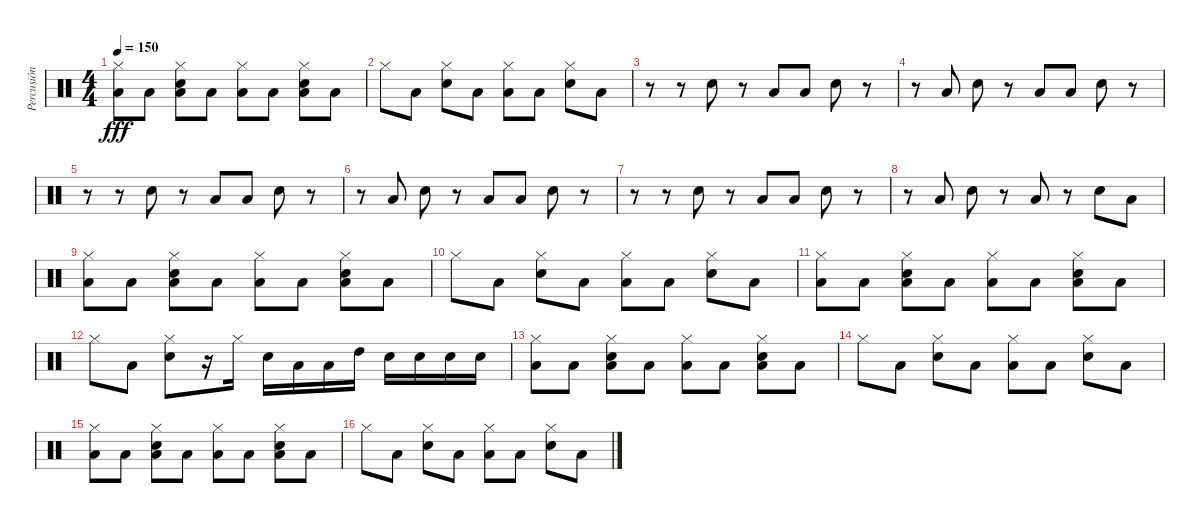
\track ("Percusión" "Percusión") {instrument percussion}
\staff {score}
\articulation defaults
\ts (4 4)
\tempo 150
\clef neutral
\ks c
("Hi-Hat (closed)" "Low Tom (hit)").8{dy fff} "Low Tom (hit)".8 ("Low Tom (hit)" "Hi-Hat (closed)" "Snare (hit) 2").8 "Low Tom (hit)".8 ("Hi-Hat (closed)" "Low Tom (hit)").8 "Low Tom (hit)".8 ("Low Tom (hit)" "Hi-Hat (closed)" "Snare (hit) 2").8 "Low Tom (hit)".8 |
"Hi-Hat (closed)".8 "Low Tom (hit)".8 ("Hi-Hat (closed)" "Snare (hit) 2").8 "Low Tom (hit)".8 ("Hi-Hat (closed)" "Low Tom (hit)").8 "Low Tom (hit)".8 ("Hi-Hat (closed)" "Snare (hit) 2").8 "Low Tom (hit)".8 |
r.8 r.8 "Snare (hit) 2".8 r.8 "Low Tom (hit)".8 "Low Tom (hit)".8 "Snare (hit) 2".8 r.8 |
r.8 "Low Tom (hit)".8 "Snare (hit) 2".8 r.8 "Low Tom (hit)".8 "Low Tom (hit)".8 "Snare (hit) 2".8 r.8 |
r.8 r.8 "Snare (hit) 2".8 r.8 "Low Tom (hit)".8 "Low Tom (hit)".8 "Snare (hit) 2".8 r.8 |
r.8 "Low Tom (hit)".8 "Snare (hit) 2".8 r.8 "Low Tom (hit)".8 "Low Tom (hit)".8 "Snare (hit) 2".8 r.8 |
r.8 r.8 "Snare (hit) 2".8 r.8 "Low Tom (hit)".8 "Low Tom (hit)".8 "Snare (hit) 2".8 r.8 |
r.8 "Low Tom (hit)".8 "Snare (hit) 2".8 r.8 "Low Tom (hit)".8 r.8 "Snare (hit) 2".8 "Low Tom (hit)".8 |
("Hi-Hat (closed)" "Low Tom (hit)").8 "Low Tom (hit)".8 ("Low Tom (hit)" "Hi-Hat (closed)" "Snare (hit) 2").8 "Low Tom (hit)".8 ("Hi-Hat (closed)" "Low Tom (hit)").8 "Low Tom (hit)".8 ("Low Tom (hit)" "Hi-Hat (closed)" "Snare (hit) 2").8 "Low Tom (hit)".8 |
"Hi-Hat (closed)".8 "Low Tom (hit)".8 ("Hi-Hat (closed)" "Snare (hit) 2").8 "Low Tom (hit)".8 ("Hi-Hat (closed)" "Low Tom (hit)").8 "Low Tom (hit)".8 ("Hi-Hat (closed)" "Snare (hit) 2").8 "Low Tom (hit)".8 |
("Hi-Hat (closed)" "Low Tom (hit)").8 "Low Tom (hit)".8 ("Low Tom (hit)" "Hi-Hat (closed)" "Snare (hit) 2").8 "Low Tom (hit)".8 ("Hi-Hat (closed)" "Low Tom (hit)").8 "Low Tom (hit)".8 ("Low Tom (hit)" "Hi-Hat (closed)" "Snare (hit) 2").8 "Low Tom (hit)".8 |
"Hi-Hat (closed)".8 "Low Tom (hit)".8 ("Hi-Hat (closed)" "Snare (hit) 2").8 r.16 "Hi-Hat (closed)".16 "Snare (hit) 2".16 "Low Tom (hit)".16 "Low Floor Tom (hit)".16 "High Tom (hit)".16 "Snare (hit) 2".16 "Snare (hit) 2".16 "Snare (hit) 2".16 "Snare (hit) 2".16 |
("Hi-Hat (closed)" "Low Tom (hit)").8 "Low Tom (hit)".8 ("Low Tom (hit)" "Hi-Hat (closed)" "Snare (hit) 2").8 "Low Tom (hit)".8 ("Hi-Hat (closed)" "Low Tom (hit)").8 "Low Tom (hit)".8 ("Low Tom (hit)" "Hi-Hat (closed)" "Snare (hit) 2").8 "Low Tom (hit)".8 |
"Hi-Hat (closed)".8 "Low Tom (hit)".8 ("Hi-Hat (closed)" "Snare (hit) 2").8 "Low Tom (hit)".8 ("Hi-Hat (closed)" "Low Tom (hit)").8 "Low Tom (hit)".8 ("Hi-Hat (closed)" "Snare (hit) 2").8 "Low Tom (hit)".8 |
("Hi-Hat (closed)" "Low Tom (hit)").8 "Low Tom (hit)".8 ("Low Tom (hit)" "Hi-Hat (closed)" "Snare (hit) 2").8 "Low Tom (hit)".8 ("Hi-Hat (closed)" "Low Tom (hit)").8 "Low Tom (hit)".8 ("Low Tom (hit)" "Hi-Hat (closed)" "Snare (hit) 2").8 "Low Tom (hit)".8 |
"Hi-Hat (closed)".8 "Low Tom (hit)".8 ("Hi-Hat (closed)" "Snare (hit) 2").8 "Low Tom (hit)".8 ("Hi-Hat (closed)" "Low Tom (hit)").8 "Low Tom (hit)".8 ("Hi-Hat (closed)" "Snare (hit) 2").8 "Low Tom (hit)".8
